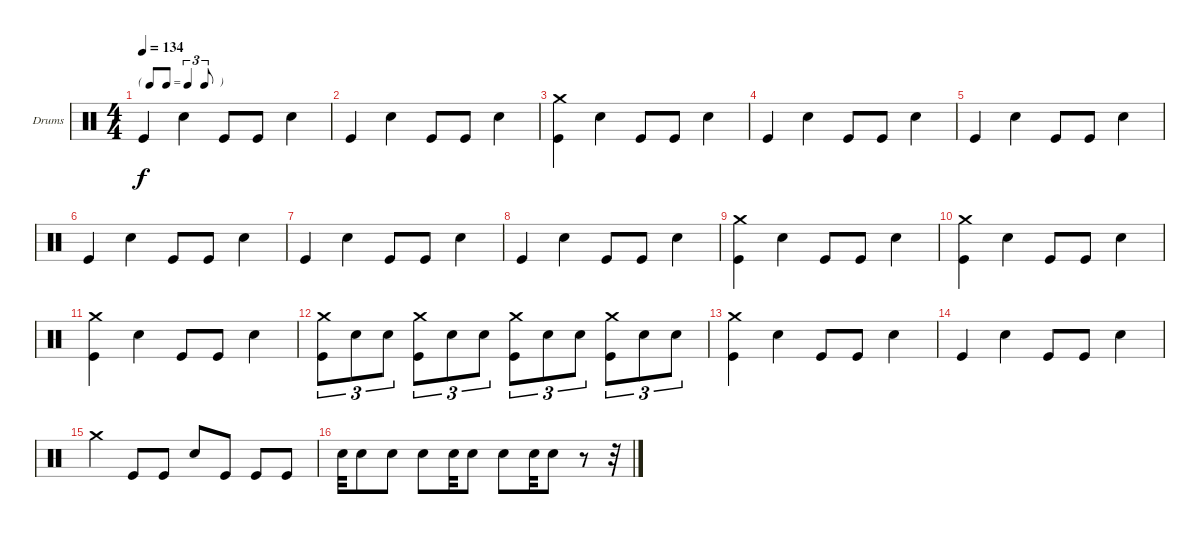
\bracketExtendMode groupsimilarinstruments
\firstSystemTrackNameOrientation horizontal
\otherSystemsTrackNameOrientation horizontal
\track ("Drumkit" "Drums") {instrument percussion}
\staff {score}
\articulation defaults
\ts (4 4)
\tf triplet8th
\tempo 134
\clef neutral
\ks c "Kick (hit)".4{dy f} "Snare (hit) 2".4 "Kick (hit)".8 "Kick (hit)".8 "Snare (hit) 2".4
|
"Kick (hit)".4 "Snare (hit) 2".4 "Kick (hit)".8 "Kick (hit)".8 "Snare (hit) 2".4 |
("Kick (hit)" "Crash medium (hit)").4 "Snare (hit) 2".4 "Kick (hit)".8 "Kick (hit)".8 "Snare (hit) 2".4 |
"Kick (hit)".4 "Snare (hit) 2".4 "Kick (hit)".8 "Kick (hit)".8 "Snare (hit) 2".4 |
"Kick (hit)".4 "Snare (hit) 2".4 "Kick (hit)".8 "Kick (hit)".8 "Snare (hit) 2".4 |
"Kick (hit)".4 "Snare (hit) 2".4 "Kick (hit)".8 "Kick (hit)".8 "Snare (hit) 2".4 |
"Kick (hit)".4 "Snare (hit) 2".4 "Kick (hit)".8 "Kick (hit)".8 "Snare (hit) 2".4 |
"Kick (hit)".4 "Snare (hit) 2".4 "Kick (hit)".8 "Kick (hit)".8 "Snare (hit) 2".4 |
("Kick (hit)" "Crash medium (hit)").4 "Snare (hit) 2".4 "Kick (hit)".8 "Kick (hit)".8 "Snare (hit) 2".4 |
("Kick (hit)" "Crash medium (hit)").4 "Snare (hit) 2".4 "Kick (hit)".8 "Kick (hit)".8 "Snare (hit) 2".4 |
("Kick (hit)" "Crash medium (hit)").4 "Snare (hit) 2".4 "Kick (hit)".8 "Kick (hit)".8 "Snare (hit) 2".4 |
("Kick (hit)" "Crash medium (hit)").8{tu (3 2)} "Snare (hit) 2".8{tu (3 2)} "Snare (hit) 2".8{tu (3 2)} ("Kick (hit)" "Crash medium (hit)").8{tu (3 2)} "Snare (hit) 2".8{tu (3 2)} "Snare (hit) 2".8{tu (3 2)} ("Kick (hit)" "Crash medium (hit)").8{tu (3 2)} "Snare (hit) 2".8{tu (3 2)} "Snare (hit) 2".8{tu (3 2)} ("Kick (hit)" "Crash medium (hit)").8{tu (3 2)} "Snare (hit) 2".8{tu (3 2)} "Snare (hit) 2".8{tu (3 2)} |
("Kick (hit)" "Crash medium (hit)").4 "Snare (hit) 2".4 "Kick (hit)".8 "Kick (hit)".8 "Snare (hit) 2".4 |
"Kick (hit)".4 "Snare (hit) 2".4 "Kick (hit)".8 "Kick (hit)".8 "Snare (hit) 2".4 |
"Crash medium (hit)".4 "Kick (hit)".8 "Kick (hit)".8 "Snare (hit) 2".8 "Kick (hit)".8 "Kick (hit)".8 "Kick (hit)".8 |
"Snare (hit) 2".32 "Snare (hit) 2".8 "Snare (hit) 2".8 "Snare (hit) 2".8 "Snare (hit) 2".32 "Snare (hit) 2".8 "Snare (hit) 2".8 "Snare (hit) 2".32 "Snare (hit) 2".8 r.8 r.32
